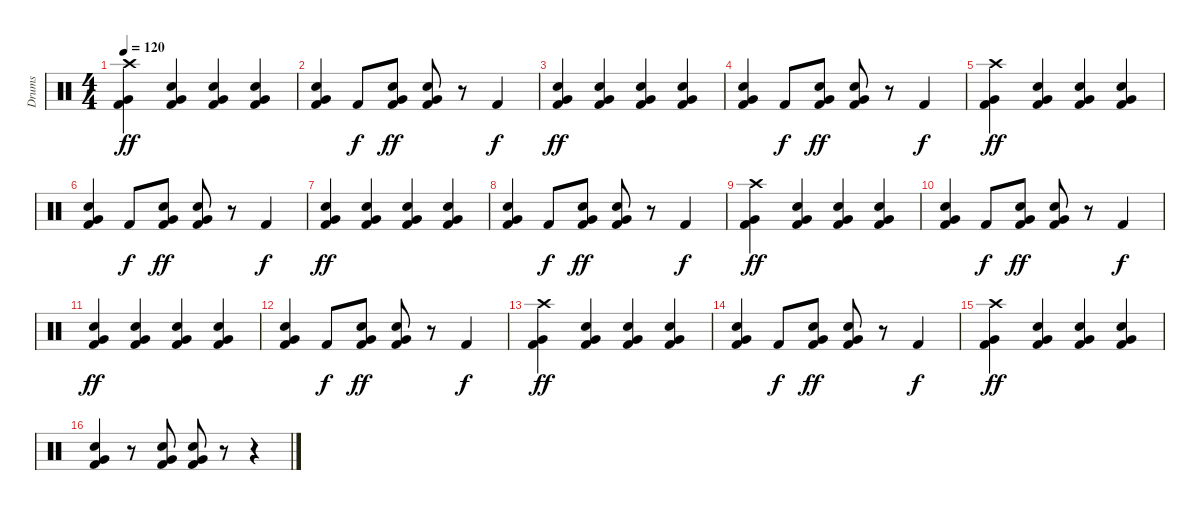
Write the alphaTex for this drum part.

\track ("Drums" "Drums") {instrument percussion}
\staff {score}
\articulation defaults
\ts (4 4)
\tempo 120
\clef neutral
\ks c
("Crash high (hit)" "Very Low Tom (hit)" "Kick (hit) 2").4{dy ff} ("Electric Snare (hit)" "Very Low Tom (hit)" "Kick (hit) 2").4 ("Electric Snare (hit)" "Very Low Tom (hit)" "Kick (hit) 2").4 ("Electric Snare (hit)" "Very Low Tom (hit)" "Kick (hit) 2").4 |
("Electric Snare (hit)" "Very Low Tom (hit)" "Kick (hit) 2").4 "Kick (hit) 2".8{dy f} ("Electric Snare (hit)" "Very Low Tom (hit)" "Kick (hit) 2").8{dy ff} ("Electric Snare (hit)" "Very Low Tom (hit)" "Kick (hit) 2").8 r.8 "Kick (hit) 2".4{dy f} |
("Electric Snare (hit)" "Very Low Tom (hit)" "Kick (hit) 2").4{dy ff} ("Electric Snare (hit)" "Very Low Tom (hit)" "Kick (hit) 2").4 ("Electric Snare (hit)" "Very Low Tom (hit)" "Kick (hit) 2").4 ("Electric Snare (hit)" "Very Low Tom (hit)" "Kick (hit) 2").4 |
("Electric Snare (hit)" "Very Low Tom (hit)" "Kick (hit) 2").4 "Kick (hit) 2".8{dy f} ("Electric Snare (hit)" "Very Low Tom (hit)" "Kick (hit) 2").8{dy ff} ("Electric Snare (hit)" "Very Low Tom (hit)" "Kick (hit) 2").8 r.8 "Kick (hit) 2".4{dy f} |
("Crash high (hit)" "Very Low Tom (hit)" "Kick (hit) 2").4{dy ff} ("Electric Snare (hit)" "Very Low Tom (hit)" "Kick (hit) 2").4 ("Electric Snare (hit)" "Very Low Tom (hit)" "Kick (hit) 2").4 ("Electric Snare (hit)" "Very Low Tom (hit)" "Kick (hit) 2").4 |
("Electric Snare (hit)" "Very Low Tom (hit)" "Kick (hit) 2").4 "Kick (hit) 2".8{dy f} ("Electric Snare (hit)" "Very Low Tom (hit)" "Kick (hit) 2").8{dy ff} ("Electric Snare (hit)" "Very Low Tom (hit)" "Kick (hit) 2").8 r.8 "Kick (hit) 2".4{dy f} |
("Electric Snare (hit)" "Very Low Tom (hit)" "Kick (hit) 2").4{dy ff} ("Electric Snare (hit)" "Very Low Tom (hit)" "Kick (hit) 2").4 ("Electric Snare (hit)" "Very Low Tom (hit)" "Kick (hit) 2").4 ("Electric Snare (hit)" "Very Low Tom (hit)" "Kick (hit) 2").4 |
("Electric Snare (hit)" "Very Low Tom (hit)" "Kick (hit) 2").4 "Kick (hit) 2".8{dy f} ("Electric Snare (hit)" "Very Low Tom (hit)" "Kick (hit) 2").8{dy ff} ("Electric Snare (hit)" "Very Low Tom (hit)" "Kick (hit) 2").8 r.8 "Kick (hit) 2".4{dy f} |
("Crash high (hit)" "Very Low Tom (hit)" "Kick (hit) 2").4{dy ff} ("Electric Snare (hit)" "Very Low Tom (hit)" "Kick (hit) 2").4 ("Electric Snare (hit)" "Very Low Tom (hit)" "Kick (hit) 2").4 ("Electric Snare (hit)" "Very Low Tom (hit)" "Kick (hit) 2").4 |
("Electric Snare (hit)" "Very Low Tom (hit)" "Kick (hit) 2").4 "Kick (hit) 2".8{dy f} ("Electric Snare (hit)" "Very Low Tom (hit)" "Kick (hit) 2").8{dy ff} ("Electric Snare (hit)" "Very Low Tom (hit)" "Kick (hit) 2").8 r.8 "Kick (hit) 2".4{dy f} |
("Electric Snare (hit)" "Very Low Tom (hit)" "Kick (hit) 2").4{dy ff} ("Electric Snare (hit)" "Very Low Tom (hit)" "Kick (hit) 2").4 ("Electric Snare (hit)" "Very Low Tom (hit)" "Kick (hit) 2").4 ("Electric Snare (hit)" "Very Low Tom (hit)" "Kick (hit) 2").4 |
("Electric Snare (hit)" "Very Low Tom (hit)" "Kick (hit) 2").4 "Kick (hit) 2".8{dy f} ("Electric Snare (hit)" "Very Low Tom (hit)" "Kick (hit) 2").8{dy ff} ("Electric Snare (hit)" "Very Low Tom (hit)" "Kick (hit) 2").8 r.8 "Kick (hit) 2".4{dy f} |
("Crash high (hit)" "Very Low Tom (hit)" "Kick (hit) 2").4{dy ff} ("Electric Snare (hit)" "Very Low Tom (hit)" "Kick (hit) 2").4 ("Electric Snare (hit)" "Very Low Tom (hit)" "Kick (hit) 2").4 ("Electric Snare (hit)" "Very Low Tom (hit)" "Kick (hit) 2").4 |
("Electric Snare (hit)" "Very Low Tom (hit)" "Kick (hit) 2").4 "Kick (hit) 2".8{dy f} ("Electric Snare (hit)" "Very Low Tom (hit)" "Kick (hit) 2").8{dy ff} ("Electric Snare (hit)" "Very Low Tom (hit)" "Kick (hit) 2").8 r.8 "Kick (hit) 2".4{dy f} |
("Crash high (hit)" "Very Low Tom (hit)" "Kick (hit) 2").4{dy ff} ("Electric Snare (hit)" "Very Low Tom (hit)" "Kick (hit) 2").4 ("Electric Snare (hit)" "Very Low Tom (hit)" "Kick (hit) 2").4 ("Electric Snare (hit)" "Very Low Tom (hit)" "Kick (hit) 2").4 |
("Electric Snare (hit)" "Very Low Tom (hit)" "Kick (hit) 2").4 r.8 ("Electric Snare (hit)" "Very Low Tom (hit)" "Kick (hit) 2").8 ("Electric Snare (hit)" "Very Low Tom (hit)" "Kick (hit) 2").8 r.8 r.4
